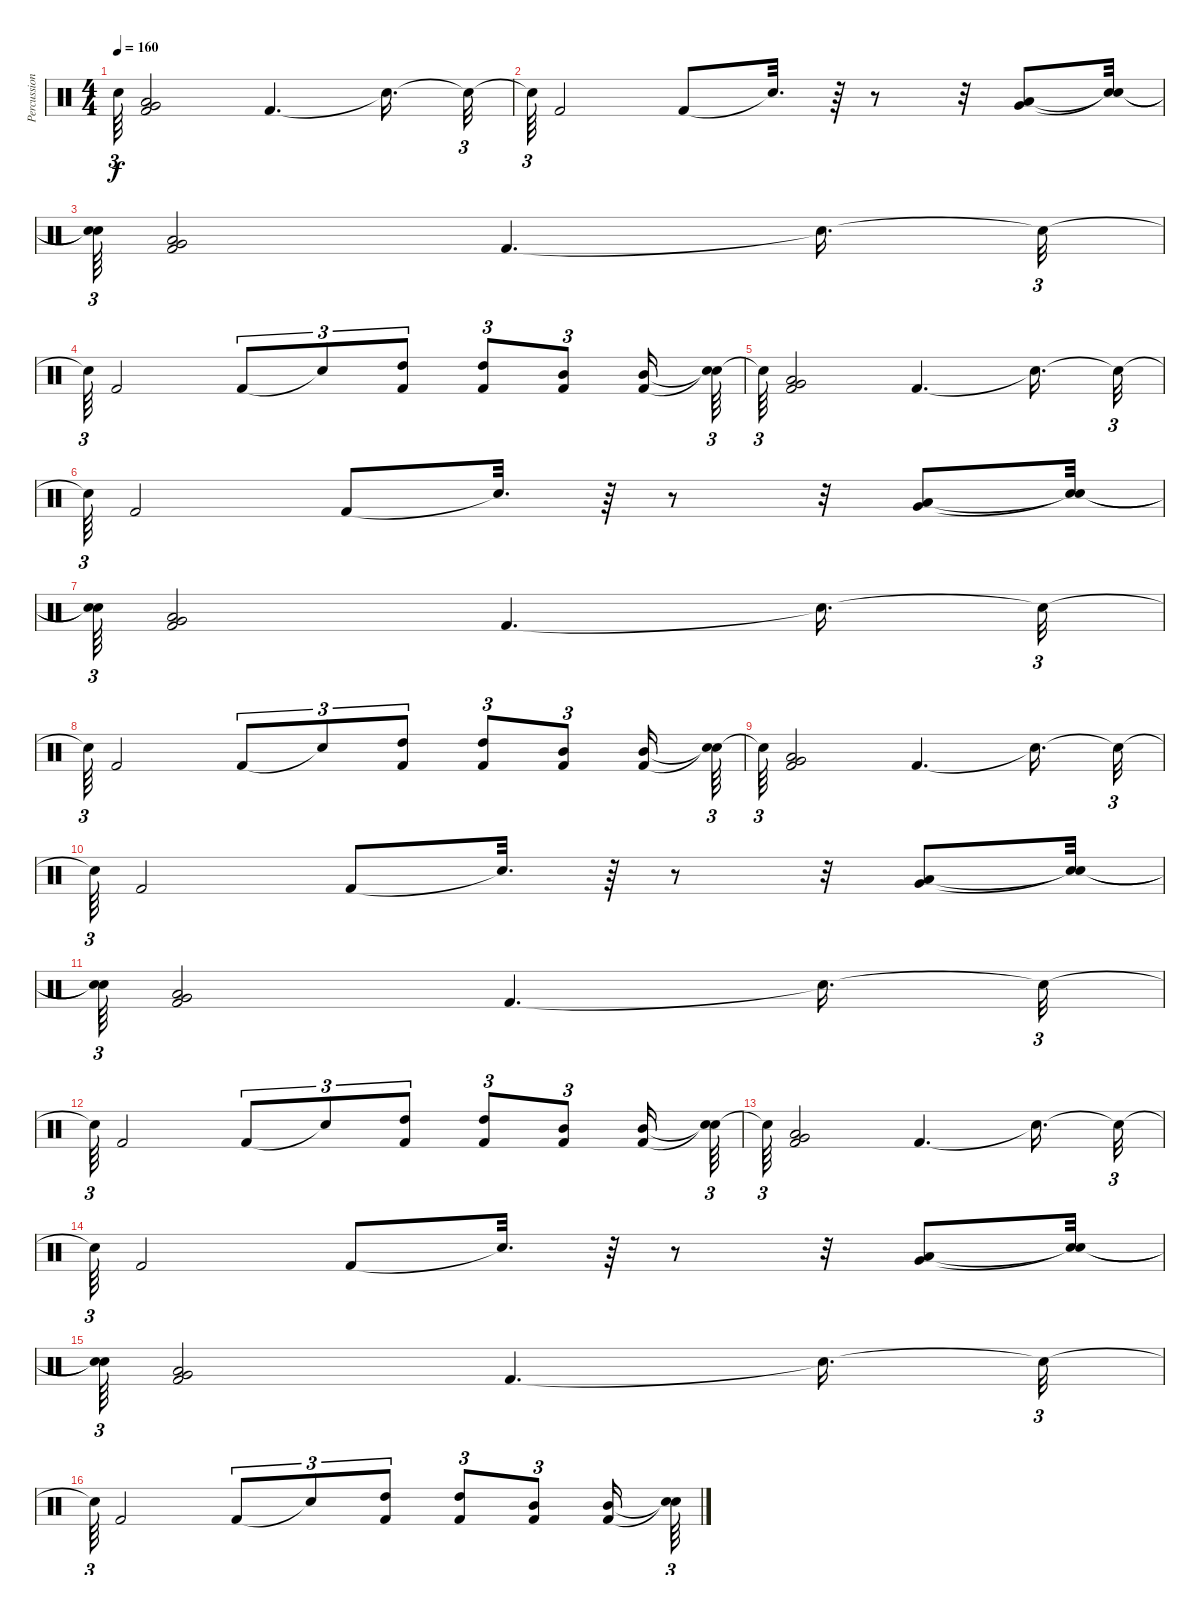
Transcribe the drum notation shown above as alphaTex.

\track ("Percussion" "Percussion") {instrument percussion}
\staff {score}
\articulation defaults
\ts (4 4)
\tempo 160
\clef neutral
\ks c "Snare (hit)"{t}.64{tu (3 2) dy f}
("Very Low Tom (hit)" "Low Floor Tom (hit)" "Kick (hit) 2").2 "Kick (hit) 2".4{d} "Snare (hit)"{t}.16{d} "Snare (hit)"{t}.32{tu (3 2)} |
"Snare (hit)"{t}.64{tu (3 2)} "Kick (hit) 2".2 "Kick (hit) 2".8 "Snare (hit)"{t}.32{d} r.64 r.8 r.32 ("Low Tom (hit)" "Very Low Tom (hit)").8 ("Snare (hit)"{t} "Snare (hit)"{t}).32 |
("Snare (hit)"{t} "Snare (hit)"{t}).64{tu (3 2)} ("Very Low Tom (hit)" "Low Floor Tom (hit)" "Kick (hit) 2").2 "Kick (hit) 2".4{d} "Snare (hit)"{t}.16{d} "Snare (hit)"{t}.32{tu (3 2)} |
"Snare (hit)"{t}.64{tu (3 2)} "Kick (hit) 2".2 "Kick (hit) 2".8{tu (3 2)} "Snare (hit)"{t}.8{tu (3 2)} ("High Tom (hit)" "Kick (hit) 2").8{tu (3 2)} ("High Tom (hit)" "Kick (hit) 2").8{tu (3 2)} ("Mid Tom (hit)" "Kick (hit) 2").8{tu (3 2)} ("Mid Tom (hit)" "Kick (hit) 2").16 ("Snare (hit)"{t} "Snare (hit)"{t}).64{tu (3 2)} |
"Snare (hit)"{t}.64{tu (3 2)} ("Very Low Tom (hit)" "Low Floor Tom (hit)" "Kick (hit) 2").2 "Kick (hit) 2".4{d} "Snare (hit)"{t}.16{d} "Snare (hit)"{t}.32{tu (3 2)} |
"Snare (hit)"{t}.64{tu (3 2)} "Kick (hit) 2".2 "Kick (hit) 2".8 "Snare (hit)"{t}.32{d} r.64 r.8 r.32 ("Low Tom (hit)" "Very Low Tom (hit)").8 ("Snare (hit)"{t} "Snare (hit)"{t}).32 |
("Snare (hit)"{t} "Snare (hit)"{t}).64{tu (3 2)} ("Very Low Tom (hit)" "Low Floor Tom (hit)" "Kick (hit) 2").2 "Kick (hit) 2".4{d} "Snare (hit)"{t}.16{d} "Snare (hit)"{t}.32{tu (3 2)} |
"Snare (hit)"{t}.64{tu (3 2)} "Kick (hit) 2".2 "Kick (hit) 2".8{tu (3 2)} "Snare (hit)"{t}.8{tu (3 2)} ("High Tom (hit)" "Kick (hit) 2").8{tu (3 2)} ("High Tom (hit)" "Kick (hit) 2").8{tu (3 2)} ("Mid Tom (hit)" "Kick (hit) 2").8{tu (3 2)} ("Mid Tom (hit)" "Kick (hit) 2").16 ("Snare (hit)"{t} "Snare (hit)"{t}).64{tu (3 2)} |
"Snare (hit)"{t}.64{tu (3 2)} ("Very Low Tom (hit)" "Low Floor Tom (hit)" "Kick (hit) 2").2 "Kick (hit) 2".4{d} "Snare (hit)"{t}.16{d} "Snare (hit)"{t}.32{tu (3 2)} |
"Snare (hit)"{t}.64{tu (3 2)} "Kick (hit) 2".2 "Kick (hit) 2".8 "Snare (hit)"{t}.32{d} r.64 r.8 r.32 ("Low Tom (hit)" "Very Low Tom (hit)").8 ("Snare (hit)"{t} "Snare (hit)"{t}).32 |
("Snare (hit)"{t} "Snare (hit)"{t}).64{tu (3 2)} ("Very Low Tom (hit)" "Low Floor Tom (hit)" "Kick (hit) 2").2 "Kick (hit) 2".4{d} "Snare (hit)"{t}.16{d} "Snare (hit)"{t}.32{tu (3 2)} |
"Snare (hit)"{t}.64{tu (3 2)} "Kick (hit) 2".2 "Kick (hit) 2".8{tu (3 2)} "Snare (hit)"{t}.8{tu (3 2)} ("High Tom (hit)" "Kick (hit) 2").8{tu (3 2)} ("High Tom (hit)" "Kick (hit) 2").8{tu (3 2)} ("Mid Tom (hit)" "Kick (hit) 2").8{tu (3 2)} ("Mid Tom (hit)" "Kick (hit) 2").16 ("Snare (hit)"{t} "Snare (hit)"{t}).64{tu (3 2)} |
"Snare (hit)"{t}.64{tu (3 2)} ("Very Low Tom (hit)" "Low Floor Tom (hit)" "Kick (hit) 2").2 "Kick (hit) 2".4{d} "Snare (hit)"{t}.16{d} "Snare (hit)"{t}.32{tu (3 2)} |
"Snare (hit)"{t}.64{tu (3 2)} "Kick (hit) 2".2 "Kick (hit) 2".8 "Snare (hit)"{t}.32{d} r.64 r.8 r.32 ("Low Tom (hit)" "Very Low Tom (hit)").8 ("Snare (hit)"{t} "Snare (hit)"{t}).32 |
("Snare (hit)"{t} "Snare (hit)"{t}).64{tu (3 2)} ("Very Low Tom (hit)" "Low Floor Tom (hit)" "Kick (hit) 2").2 "Kick (hit) 2".4{d} "Snare (hit)"{t}.16{d} "Snare (hit)"{t}.32{tu (3 2)} |
"Snare (hit)"{t}.64{tu (3 2)} "Kick (hit) 2".2 "Kick (hit) 2".8{tu (3 2)} "Snare (hit)"{t}.8{tu (3 2)} ("High Tom (hit)" "Kick (hit) 2").8{tu (3 2)} ("High Tom (hit)" "Kick (hit) 2").8{tu (3 2)} ("Mid Tom (hit)" "Kick (hit) 2").8{tu (3 2)} ("Mid Tom (hit)" "Kick (hit) 2").16 ("Snare (hit)"{t} "Snare (hit)"{t}).64{tu (3 2)}
